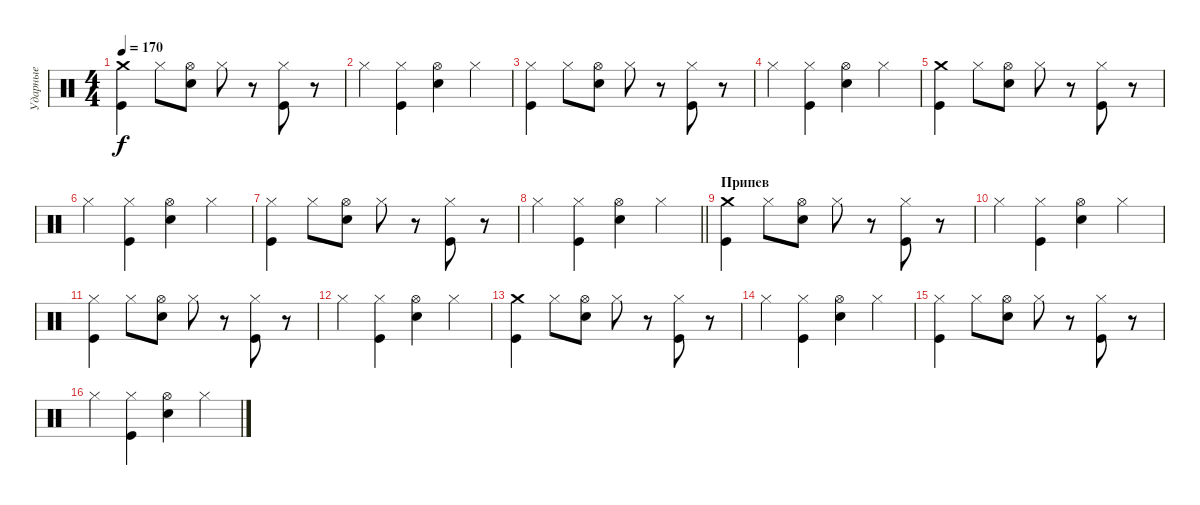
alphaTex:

\track ("Ударные" "Ударные") {instrument percussion}
\staff {score}
\articulation defaults
\ts (4 4)
\tempo 170
\clef neutral
\ks c
("Kick (hit)" "Crash medium (hit)").4{dy f} "Hi-Hat (closed)".8 ("Snare (hit) 2" "Hi-Hat (open)").8 "Hi-Hat (closed)".8 r.8 ("Kick (hit)" "Hi-Hat (closed)").8 r.8 |
"Hi-Hat (closed)".4 ("Kick (hit)" "Hi-Hat (closed)").4 ("Snare (hit) 2" "Hi-Hat (open)").4 "Hi-Hat (closed)".4 |
("Kick (hit)" "Hi-Hat (closed)").4 "Hi-Hat (closed)".8 ("Snare (hit) 2" "Hi-Hat (open)").8 "Hi-Hat (closed)".8 r.8 ("Kick (hit)" "Hi-Hat (closed)").8 r.8 |
"Hi-Hat (closed)".4 ("Kick (hit)" "Hi-Hat (closed)").4 ("Snare (hit) 2" "Hi-Hat (open)").4 "Hi-Hat (closed)".4 |
("Kick (hit)" "Crash medium (hit)").4 "Hi-Hat (closed)".8 ("Snare (hit) 2" "Hi-Hat (open)").8 "Hi-Hat (closed)".8 r.8 ("Kick (hit)" "Hi-Hat (closed)").8 r.8 |
"Hi-Hat (closed)".4 ("Kick (hit)" "Hi-Hat (closed)").4 ("Snare (hit) 2" "Hi-Hat (open)").4 "Hi-Hat (closed)".4 |
("Kick (hit)" "Hi-Hat (closed)").4 "Hi-Hat (closed)".8 ("Snare (hit) 2" "Hi-Hat (open)").8 "Hi-Hat (closed)".8 r.8 ("Kick (hit)" "Hi-Hat (closed)").8 r.8 |
\barLineRight lightlight "Hi-Hat (closed)".4
("Kick (hit)" "Hi-Hat (closed)").4 ("Snare (hit) 2" "Hi-Hat (open)").4 "Hi-Hat (closed)".4 |
\section ("" "Припев")
("Kick (hit)" "Crash medium (hit)").4 "Hi-Hat (closed)".8 ("Snare (hit) 2" "Hi-Hat (open)").8 "Hi-Hat (closed)".8 r.8 ("Kick (hit)" "Hi-Hat (closed)").8 r.8 |
"Hi-Hat (closed)".4 ("Kick (hit)" "Hi-Hat (closed)").4 ("Snare (hit) 2" "Hi-Hat (open)").4 "Hi-Hat (closed)".4 |
("Kick (hit)" "Hi-Hat (closed)").4 "Hi-Hat (closed)".8 ("Snare (hit) 2" "Hi-Hat (open)").8 "Hi-Hat (closed)".8 r.8 ("Kick (hit)" "Hi-Hat (closed)").8 r.8 |
"Hi-Hat (closed)".4 ("Kick (hit)" "Hi-Hat (closed)").4 ("Snare (hit) 2" "Hi-Hat (open)").4 "Hi-Hat (closed)".4 |
("Kick (hit)" "Crash medium (hit)").4 "Hi-Hat (closed)".8 ("Snare (hit) 2" "Hi-Hat (open)").8 "Hi-Hat (closed)".8 r.8 ("Kick (hit)" "Hi-Hat (closed)").8 r.8 |
"Hi-Hat (closed)".4 ("Kick (hit)" "Hi-Hat (closed)").4 ("Snare (hit) 2" "Hi-Hat (open)").4 "Hi-Hat (closed)".4 |
("Kick (hit)" "Hi-Hat (closed)").4 "Hi-Hat (closed)".8 ("Snare (hit) 2" "Hi-Hat (open)").8 "Hi-Hat (closed)".8 r.8 ("Kick (hit)" "Hi-Hat (closed)").8 r.8 |
"Hi-Hat (closed)".4 ("Kick (hit)" "Hi-Hat (closed)").4 ("Snare (hit) 2" "Hi-Hat (open)").4 "Hi-Hat (closed)".4
